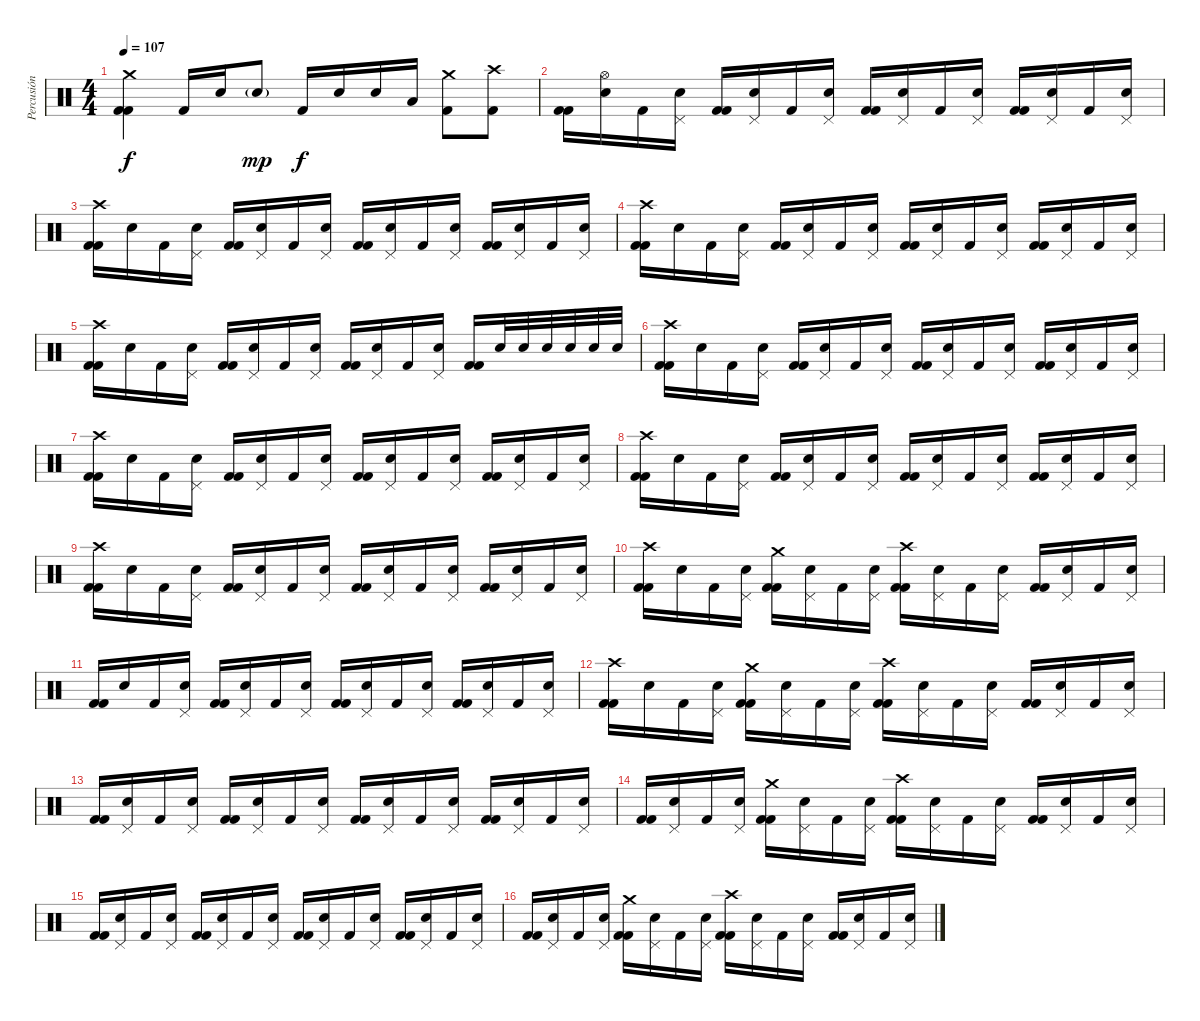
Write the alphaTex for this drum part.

\track ("Percusión" "Percusión") {instrument percussion}
\staff {score}
\articulation defaults
\ts (4 4)
\tempo 107
\clef neutral
\ks c
("Kick (hit) 2" "Kick (hit) 2" "Crash medium (hit)").4{dy f} "Kick (hit) 2".16 "Electric Snare (hit)".16 "Electric Snare (hit)"{g}.8{dy mp} "Kick (hit) 2".16{dy f} "Electric Snare (hit)".16 "Electric Snare (hit)".16 "Low Floor Tom (hit)".16 ("Kick (hit) 2" "Crash medium (hit)").8 ("Kick (hit) 2" "Crash high (hit)").8 |
("Kick (hit) 2" "Kick (hit) 2").16 ("Electric Snare (hit)" "Hi-Hat (open)").16 "Kick (hit) 2".16 ("Electric Snare (hit)" "Pedal Hi-Hat (hit)").16 ("Kick (hit) 2" "Kick (hit) 2").16 ("Electric Snare (hit)" "Pedal Hi-Hat (hit)").16 "Kick (hit) 2".16 ("Electric Snare (hit)" "Pedal Hi-Hat (hit)").16 ("Kick (hit) 2" "Kick (hit) 2").16 ("Electric Snare (hit)" "Pedal Hi-Hat (hit)").16 "Kick (hit) 2".16 ("Electric Snare (hit)" "Pedal Hi-Hat (hit)").16 ("Kick (hit) 2" "Kick (hit) 2").16 ("Electric Snare (hit)" "Pedal Hi-Hat (hit)").16 "Kick (hit) 2".16 ("Electric Snare (hit)" "Pedal Hi-Hat (hit)").16 |
("Kick (hit) 2" "Kick (hit) 2" "Crash high (hit)").16 "Electric Snare (hit)".16 "Kick (hit) 2".16 ("Electric Snare (hit)" "Pedal Hi-Hat (hit)").16 ("Kick (hit) 2" "Kick (hit) 2").16 ("Electric Snare (hit)" "Pedal Hi-Hat (hit)").16 "Kick (hit) 2".16 ("Electric Snare (hit)" "Pedal Hi-Hat (hit)").16 ("Kick (hit) 2" "Kick (hit) 2").16 ("Electric Snare (hit)" "Pedal Hi-Hat (hit)").16 "Kick (hit) 2".16 ("Electric Snare (hit)" "Pedal Hi-Hat (hit)").16 ("Kick (hit) 2" "Kick (hit) 2").16 ("Electric Snare (hit)" "Pedal Hi-Hat (hit)").16 "Kick (hit) 2".16 ("Electric Snare (hit)" "Pedal Hi-Hat (hit)").16 |
("Kick (hit) 2" "Kick (hit) 2" "Crash high (hit)").16 "Electric Snare (hit)".16 "Kick (hit) 2".16 ("Electric Snare (hit)" "Pedal Hi-Hat (hit)").16 ("Kick (hit) 2" "Kick (hit) 2").16 ("Electric Snare (hit)" "Pedal Hi-Hat (hit)").16 "Kick (hit) 2".16 ("Electric Snare (hit)" "Pedal Hi-Hat (hit)").16 ("Kick (hit) 2" "Kick (hit) 2").16 ("Electric Snare (hit)" "Pedal Hi-Hat (hit)").16 "Kick (hit) 2".16 ("Electric Snare (hit)" "Pedal Hi-Hat (hit)").16 ("Kick (hit) 2" "Kick (hit) 2").16 ("Electric Snare (hit)" "Pedal Hi-Hat (hit)").16 "Kick (hit) 2".16 ("Electric Snare (hit)" "Pedal Hi-Hat (hit)").16 |
("Kick (hit) 2" "Kick (hit) 2" "Crash high (hit)").16 "Electric Snare (hit)".16 "Kick (hit) 2".16 ("Electric Snare (hit)" "Pedal Hi-Hat (hit)").16 ("Kick (hit) 2" "Kick (hit) 2").16 ("Electric Snare (hit)" "Pedal Hi-Hat (hit)").16 "Kick (hit) 2".16 ("Electric Snare (hit)" "Pedal Hi-Hat (hit)").16 ("Kick (hit) 2" "Kick (hit) 2").16 ("Electric Snare (hit)" "Pedal Hi-Hat (hit)").16 "Kick (hit) 2".16 ("Electric Snare (hit)" "Pedal Hi-Hat (hit)").16 ("Kick (hit) 2" "Kick (hit) 2").16 "Electric Snare (hit)".32 "Electric Snare (hit)".32 "Electric Snare (hit)".32 "Electric Snare (hit)".32 "Electric Snare (hit)".32 "Electric Snare (hit)".32 |
("Kick (hit) 2" "Kick (hit) 2" "Crash high (hit)").16 "Electric Snare (hit)".16 "Kick (hit) 2".16 ("Electric Snare (hit)" "Pedal Hi-Hat (hit)").16 ("Kick (hit) 2" "Kick (hit) 2").16 ("Electric Snare (hit)" "Pedal Hi-Hat (hit)").16 "Kick (hit) 2".16 ("Electric Snare (hit)" "Pedal Hi-Hat (hit)").16 ("Kick (hit) 2" "Kick (hit) 2").16 ("Electric Snare (hit)" "Pedal Hi-Hat (hit)").16 "Kick (hit) 2".16 ("Electric Snare (hit)" "Pedal Hi-Hat (hit)").16 ("Kick (hit) 2" "Kick (hit) 2").16 ("Electric Snare (hit)" "Pedal Hi-Hat (hit)").16 "Kick (hit) 2".16 ("Electric Snare (hit)" "Pedal Hi-Hat (hit)").16 |
("Kick (hit) 2" "Kick (hit) 2" "Crash high (hit)").16 "Electric Snare (hit)".16 "Kick (hit) 2".16 ("Electric Snare (hit)" "Pedal Hi-Hat (hit)").16 ("Kick (hit) 2" "Kick (hit) 2").16 ("Electric Snare (hit)" "Pedal Hi-Hat (hit)").16 "Kick (hit) 2".16 ("Electric Snare (hit)" "Pedal Hi-Hat (hit)").16 ("Kick (hit) 2" "Kick (hit) 2").16 ("Electric Snare (hit)" "Pedal Hi-Hat (hit)").16 "Kick (hit) 2".16 ("Electric Snare (hit)" "Pedal Hi-Hat (hit)").16 ("Kick (hit) 2" "Kick (hit) 2").16 ("Electric Snare (hit)" "Pedal Hi-Hat (hit)").16 "Kick (hit) 2".16 ("Electric Snare (hit)" "Pedal Hi-Hat (hit)").16 |
("Kick (hit) 2" "Kick (hit) 2" "Crash high (hit)").16 "Electric Snare (hit)".16 "Kick (hit) 2".16 ("Electric Snare (hit)" "Pedal Hi-Hat (hit)").16 ("Kick (hit) 2" "Kick (hit) 2").16 ("Electric Snare (hit)" "Pedal Hi-Hat (hit)").16 "Kick (hit) 2".16 ("Electric Snare (hit)" "Pedal Hi-Hat (hit)").16 ("Kick (hit) 2" "Kick (hit) 2").16 ("Electric Snare (hit)" "Pedal Hi-Hat (hit)").16 "Kick (hit) 2".16 ("Electric Snare (hit)" "Pedal Hi-Hat (hit)").16 ("Kick (hit) 2" "Kick (hit) 2").16 ("Electric Snare (hit)" "Pedal Hi-Hat (hit)").16 "Kick (hit) 2".16 ("Electric Snare (hit)" "Pedal Hi-Hat (hit)").16 |
("Kick (hit) 2" "Kick (hit) 2" "Crash high (hit)").16 "Electric Snare (hit)".16 "Kick (hit) 2".16 ("Electric Snare (hit)" "Pedal Hi-Hat (hit)").16 ("Kick (hit) 2" "Kick (hit) 2").16 ("Electric Snare (hit)" "Pedal Hi-Hat (hit)").16 "Kick (hit) 2".16 ("Electric Snare (hit)" "Pedal Hi-Hat (hit)").16 ("Kick (hit) 2" "Kick (hit) 2").16 ("Electric Snare (hit)" "Pedal Hi-Hat (hit)").16 "Kick (hit) 2".16 ("Electric Snare (hit)" "Pedal Hi-Hat (hit)").16 ("Kick (hit) 2" "Kick (hit) 2").16 ("Electric Snare (hit)" "Pedal Hi-Hat (hit)").16 "Kick (hit) 2".16 ("Electric Snare (hit)" "Pedal Hi-Hat (hit)").16 |
("Kick (hit) 2" "Kick (hit) 2" "Crash high (hit)").16 "Electric Snare (hit)".16 "Kick (hit) 2".16 ("Electric Snare (hit)" "Pedal Hi-Hat (hit)").16 ("Kick (hit) 2" "Kick (hit) 2" "Crash medium (hit)").16 ("Electric Snare (hit)" "Pedal Hi-Hat (hit)").16 "Kick (hit) 2".16 ("Electric Snare (hit)" "Pedal Hi-Hat (hit)").16 ("Kick (hit) 2" "Kick (hit) 2" "Crash high (hit)").16 ("Electric Snare (hit)" "Pedal Hi-Hat (hit)").16 "Kick (hit) 2".16 ("Electric Snare (hit)" "Pedal Hi-Hat (hit)").16 ("Kick (hit) 2" "Kick (hit) 2").16 ("Electric Snare (hit)" "Pedal Hi-Hat (hit)").16 "Kick (hit) 2".16 ("Electric Snare (hit)" "Pedal Hi-Hat (hit)").16 |
("Kick (hit) 2" "Kick (hit) 2").16 "Electric Snare (hit)".16 "Kick (hit) 2".16 ("Electric Snare (hit)" "Pedal Hi-Hat (hit)").16 ("Kick (hit) 2" "Kick (hit) 2").16 ("Electric Snare (hit)" "Pedal Hi-Hat (hit)").16 "Kick (hit) 2".16 ("Electric Snare (hit)" "Pedal Hi-Hat (hit)").16 ("Kick (hit) 2" "Kick (hit) 2").16 ("Electric Snare (hit)" "Pedal Hi-Hat (hit)").16 "Kick (hit) 2".16 ("Electric Snare (hit)" "Pedal Hi-Hat (hit)").16 ("Kick (hit) 2" "Kick (hit) 2").16 ("Electric Snare (hit)" "Pedal Hi-Hat (hit)").16 "Kick (hit) 2".16 ("Electric Snare (hit)" "Pedal Hi-Hat (hit)").16 |
("Kick (hit) 2" "Kick (hit) 2" "Crash high (hit)").16 "Electric Snare (hit)".16 "Kick (hit) 2".16 ("Electric Snare (hit)" "Pedal Hi-Hat (hit)").16 ("Kick (hit) 2" "Kick (hit) 2" "Crash medium (hit)").16 ("Electric Snare (hit)" "Pedal Hi-Hat (hit)").16 "Kick (hit) 2".16 ("Electric Snare (hit)" "Pedal Hi-Hat (hit)").16 ("Kick (hit) 2" "Kick (hit) 2" "Crash high (hit)").16 ("Electric Snare (hit)" "Pedal Hi-Hat (hit)").16 "Kick (hit) 2".16 ("Electric Snare (hit)" "Pedal Hi-Hat (hit)").16 ("Kick (hit) 2" "Kick (hit) 2").16 ("Electric Snare (hit)" "Pedal Hi-Hat (hit)").16 "Kick (hit) 2".16 ("Electric Snare (hit)" "Pedal Hi-Hat (hit)").16 |
("Kick (hit) 2" "Kick (hit) 2").16 ("Electric Snare (hit)" "Pedal Hi-Hat (hit)").16 "Kick (hit) 2".16 ("Electric Snare (hit)" "Pedal Hi-Hat (hit)").16 ("Kick (hit) 2" "Kick (hit) 2").16 ("Electric Snare (hit)" "Pedal Hi-Hat (hit)").16 "Kick (hit) 2".16 ("Electric Snare (hit)" "Pedal Hi-Hat (hit)").16 ("Kick (hit) 2" "Kick (hit) 2").16 ("Electric Snare (hit)" "Pedal Hi-Hat (hit)").16 "Kick (hit) 2".16 ("Electric Snare (hit)" "Pedal Hi-Hat (hit)").16 ("Kick (hit) 2" "Kick (hit) 2").16 ("Electric Snare (hit)" "Pedal Hi-Hat (hit)").16 "Kick (hit) 2".16 ("Electric Snare (hit)" "Pedal Hi-Hat (hit)").16 |
("Kick (hit) 2" "Kick (hit) 2").16 ("Electric Snare (hit)" "Pedal Hi-Hat (hit)").16 "Kick (hit) 2".16 ("Electric Snare (hit)" "Pedal Hi-Hat (hit)").16 ("Kick (hit) 2" "Kick (hit) 2" "Crash medium (hit)").16 ("Electric Snare (hit)" "Pedal Hi-Hat (hit)").16 "Kick (hit) 2".16 ("Electric Snare (hit)" "Pedal Hi-Hat (hit)").16 ("Kick (hit) 2" "Kick (hit) 2" "Crash high (hit)").16 ("Electric Snare (hit)" "Pedal Hi-Hat (hit)").16 "Kick (hit) 2".16 ("Electric Snare (hit)" "Pedal Hi-Hat (hit)").16 ("Kick (hit) 2" "Kick (hit) 2").16 ("Electric Snare (hit)" "Pedal Hi-Hat (hit)").16 "Kick (hit) 2".16 ("Electric Snare (hit)" "Pedal Hi-Hat (hit)").16 |
("Kick (hit) 2" "Kick (hit) 2").16 ("Electric Snare (hit)" "Pedal Hi-Hat (hit)").16 "Kick (hit) 2".16 ("Electric Snare (hit)" "Pedal Hi-Hat (hit)").16 ("Kick (hit) 2" "Kick (hit) 2").16 ("Electric Snare (hit)" "Pedal Hi-Hat (hit)").16 "Kick (hit) 2".16 ("Electric Snare (hit)" "Pedal Hi-Hat (hit)").16 ("Kick (hit) 2" "Kick (hit) 2").16 ("Electric Snare (hit)" "Pedal Hi-Hat (hit)").16 "Kick (hit) 2".16 ("Electric Snare (hit)" "Pedal Hi-Hat (hit)").16 ("Kick (hit) 2" "Kick (hit) 2").16 ("Electric Snare (hit)" "Pedal Hi-Hat (hit)").16 "Kick (hit) 2".16 ("Electric Snare (hit)" "Pedal Hi-Hat (hit)").16 |
("Kick (hit) 2" "Kick (hit) 2").16 ("Electric Snare (hit)" "Pedal Hi-Hat (hit)").16 "Kick (hit) 2".16 ("Electric Snare (hit)" "Pedal Hi-Hat (hit)").16 ("Kick (hit) 2" "Kick (hit) 2" "Crash medium (hit)").16 ("Electric Snare (hit)" "Pedal Hi-Hat (hit)").16 "Kick (hit) 2".16 ("Electric Snare (hit)" "Pedal Hi-Hat (hit)").16 ("Kick (hit) 2" "Kick (hit) 2" "Crash high (hit)").16 ("Electric Snare (hit)" "Pedal Hi-Hat (hit)").16 "Kick (hit) 2".16 ("Electric Snare (hit)" "Pedal Hi-Hat (hit)").16 ("Kick (hit) 2" "Kick (hit) 2").16 ("Electric Snare (hit)" "Pedal Hi-Hat (hit)").16 "Kick (hit) 2".16 ("Electric Snare (hit)" "Pedal Hi-Hat (hit)").16
